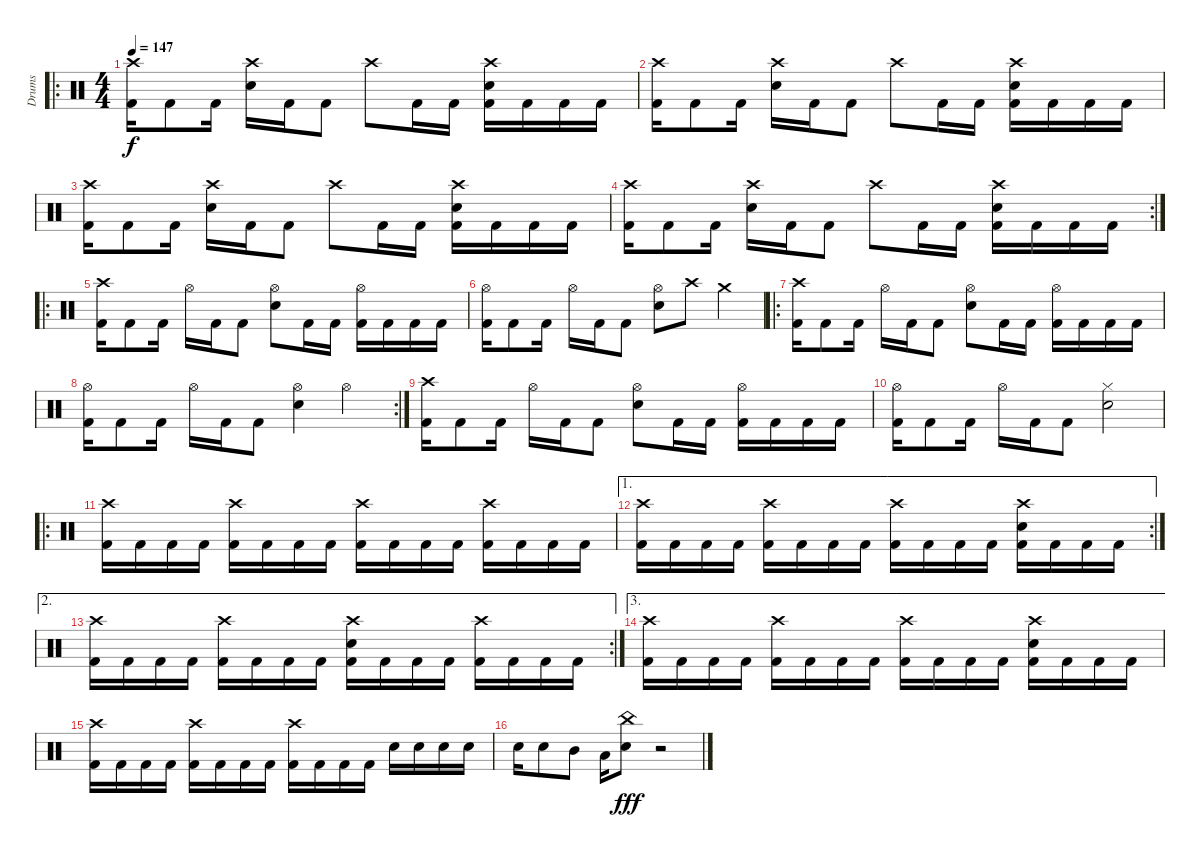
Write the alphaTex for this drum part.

\track ("Drums" "Drums") {instrument percussion}
\staff {score}
\articulation defaults
\ro
\ts (4 4)
\tempo 147
\clef neutral
\ks c
("Crash high (hit)" "Kick (hit) 2").16{dy f} "Kick (hit) 2".8 "Kick (hit) 2".16 ("Crash high (hit)" "Electric Snare (hit)").16 "Kick (hit) 2".16 "Kick (hit) 2".8 "Crash high (hit)".8 "Kick (hit) 2".16 "Kick (hit) 2".16 ("Crash high (hit)" "Electric Snare (hit)" "Kick (hit) 2").16 "Kick (hit) 2".16 "Kick (hit) 2".16 "Kick (hit) 2".16 |
("Crash high (hit)" "Kick (hit) 2").16 "Kick (hit) 2".8 "Kick (hit) 2".16 ("Crash high (hit)" "Electric Snare (hit)").16 "Kick (hit) 2".16 "Kick (hit) 2".8 "Crash high (hit)".8 "Kick (hit) 2".16 "Kick (hit) 2".16 ("Crash high (hit)" "Electric Snare (hit)" "Kick (hit) 2").16 "Kick (hit) 2".16 "Kick (hit) 2".16 "Kick (hit) 2".16 |
("Crash high (hit)" "Kick (hit) 2").16 "Kick (hit) 2".8 "Kick (hit) 2".16 ("Crash high (hit)" "Electric Snare (hit)").16 "Kick (hit) 2".16 "Kick (hit) 2".8 "Crash high (hit)".8 "Kick (hit) 2".16 "Kick (hit) 2".16 ("Crash high (hit)" "Electric Snare (hit)" "Kick (hit) 2").16 "Kick (hit) 2".16 "Kick (hit) 2".16 "Kick (hit) 2".16 |
\rc 2
("Crash high (hit)" "Kick (hit) 2").16 "Kick (hit) 2".8 "Kick (hit) 2".16 ("Crash high (hit)" "Electric Snare (hit)").16 "Kick (hit) 2".16 "Kick (hit) 2".8 "Crash high (hit)".8 "Kick (hit) 2".16 "Kick (hit) 2".16 ("Crash high (hit)" "Electric Snare (hit)" "Kick (hit) 2").16 "Kick (hit) 2".16 "Kick (hit) 2".16 "Kick (hit) 2".16 |
\ro
("Crash high (hit)" "Kick (hit) 2").16 "Kick (hit) 2".8 "Kick (hit) 2".16 "Hi-Hat (open)".16 "Kick (hit) 2".16 "Kick (hit) 2".8 ("Hi-Hat (open)" "Electric Snare (hit)").8 "Kick (hit) 2".16 "Kick (hit) 2".16 ("Hi-Hat (open)" "Kick (hit) 2").16 "Kick (hit) 2".16 "Kick (hit) 2".16 "Kick (hit) 2".16 |
("Hi-Hat (open)" "Kick (hit) 2").16 "Kick (hit) 2".8 "Kick (hit) 2".16 "Hi-Hat (open)".16 "Kick (hit) 2".16 "Kick (hit) 2".8 ("Hi-Hat (open)" "Electric Snare (hit)").8 "Crash high (hit)".8 "Crash medium (hit)".4 |
\ro
("Crash high (hit)" "Kick (hit) 2").16 "Kick (hit) 2".8 "Kick (hit) 2".16 "Hi-Hat (open)".16 "Kick (hit) 2".16 "Kick (hit) 2".8 ("Hi-Hat (open)" "Electric Snare (hit)").8 "Kick (hit) 2".16 "Kick (hit) 2".16 ("Hi-Hat (open)" "Kick (hit) 2").16 "Kick (hit) 2".16 "Kick (hit) 2".16 "Kick (hit) 2".16 |
\rc 2
("Hi-Hat (open)" "Kick (hit) 2").16 "Kick (hit) 2".8 "Kick (hit) 2".16 "Hi-Hat (open)".16 "Kick (hit) 2".16 "Kick (hit) 2".8 ("Hi-Hat (open)" "Electric Snare (hit)").4 "Hi-Hat (open)".4 |
("Crash high (hit)" "Kick (hit) 2").16 "Kick (hit) 2".8 "Kick (hit) 2".16 "Hi-Hat (open)".16 "Kick (hit) 2".16 "Kick (hit) 2".8 ("Hi-Hat (open)" "Electric Snare (hit)").8 "Kick (hit) 2".16 "Kick (hit) 2".16 ("Hi-Hat (open)" "Kick (hit) 2").16 "Kick (hit) 2".16 "Kick (hit) 2".16 "Kick (hit) 2".16 |
("Hi-Hat (open)" "Kick (hit) 2").16 "Kick (hit) 2".8 "Kick (hit) 2".16 "Hi-Hat (open)".16 "Kick (hit) 2".16 "Kick (hit) 2".8 ("Hi-Hat (closed)" "Electric Snare (hit)").2 |
\ro
("Crash high (hit)" "Kick (hit) 2").16 "Kick (hit) 2".16 "Kick (hit) 2".16 "Kick (hit) 2".16 ("Crash high (hit)" "Kick (hit) 2").16 "Kick (hit) 2".16 "Kick (hit) 2".16 "Kick (hit) 2".16 ("Crash high (hit)" "Kick (hit) 2").16 "Kick (hit) 2".16 "Kick (hit) 2".16 "Kick (hit) 2".16 ("Crash high (hit)" "Kick (hit) 2").16 "Kick (hit) 2".16 "Kick (hit) 2".16 "Kick (hit) 2".16 |
\ae 1
\rc 2
("Crash high (hit)" "Kick (hit) 2").16 "Kick (hit) 2".16 "Kick (hit) 2".16 "Kick (hit) 2".16 ("Crash high (hit)" "Kick (hit) 2").16 "Kick (hit) 2".16 "Kick (hit) 2".16 "Kick (hit) 2".16 ("Crash high (hit)" "Kick (hit) 2").16 "Kick (hit) 2".16 "Kick (hit) 2".16 "Kick (hit) 2".16 ("Crash high (hit)" "Electric Snare (hit)" "Kick (hit) 2").16 "Kick (hit) 2".16 "Kick (hit) 2".16 "Kick (hit) 2".16 |
\ae 2
\rc 2
("Crash high (hit)" "Kick (hit) 2").16 "Kick (hit) 2".16 "Kick (hit) 2".16 "Kick (hit) 2".16 ("Crash high (hit)" "Kick (hit) 2").16 "Kick (hit) 2".16 "Kick (hit) 2".16 "Kick (hit) 2".16 ("Crash high (hit)" "Electric Snare (hit)" "Kick (hit) 2").16 "Kick (hit) 2".16 "Kick (hit) 2".16 "Kick (hit) 2".16 ("Crash high (hit)" "Kick (hit) 2").16 "Kick (hit) 2".16 "Kick (hit) 2".16 "Kick (hit) 2".16 |
\ae 3
("Crash high (hit)" "Kick (hit) 2").16 "Kick (hit) 2".16 "Kick (hit) 2".16 "Kick (hit) 2".16 ("Crash high (hit)" "Kick (hit) 2").16 "Kick (hit) 2".16 "Kick (hit) 2".16 "Kick (hit) 2".16 ("Crash high (hit)" "Kick (hit) 2").16 "Kick (hit) 2".16 "Kick (hit) 2".16 "Kick (hit) 2".16 ("Crash high (hit)" "Electric Snare (hit)" "Kick (hit) 2").16 "Kick (hit) 2".16 "Kick (hit) 2".16 "Kick (hit) 2".16 |
("Crash high (hit)" "Kick (hit) 2").16 "Kick (hit) 2".16 "Kick (hit) 2".16 "Kick (hit) 2".16 ("Crash high (hit)" "Kick (hit) 2").16 "Kick (hit) 2".16 "Kick (hit) 2".16 "Kick (hit) 2".16 ("Crash high (hit)" "Kick (hit) 2").16 "Kick (hit) 2".16 "Kick (hit) 2".16 "Kick (hit) 2".16 "Electric Snare (hit)".16 "Electric Snare (hit)".16 "Electric Snare (hit)".16 "Electric Snare (hit)".16 |
"Electric Snare (hit)".16 "Electric Snare (hit)".8 "Mid Tom (hit)".8 "Low Tom (hit)".16 ("China (hit)" "Electric Snare (hit)").8{dy fff} r.2
